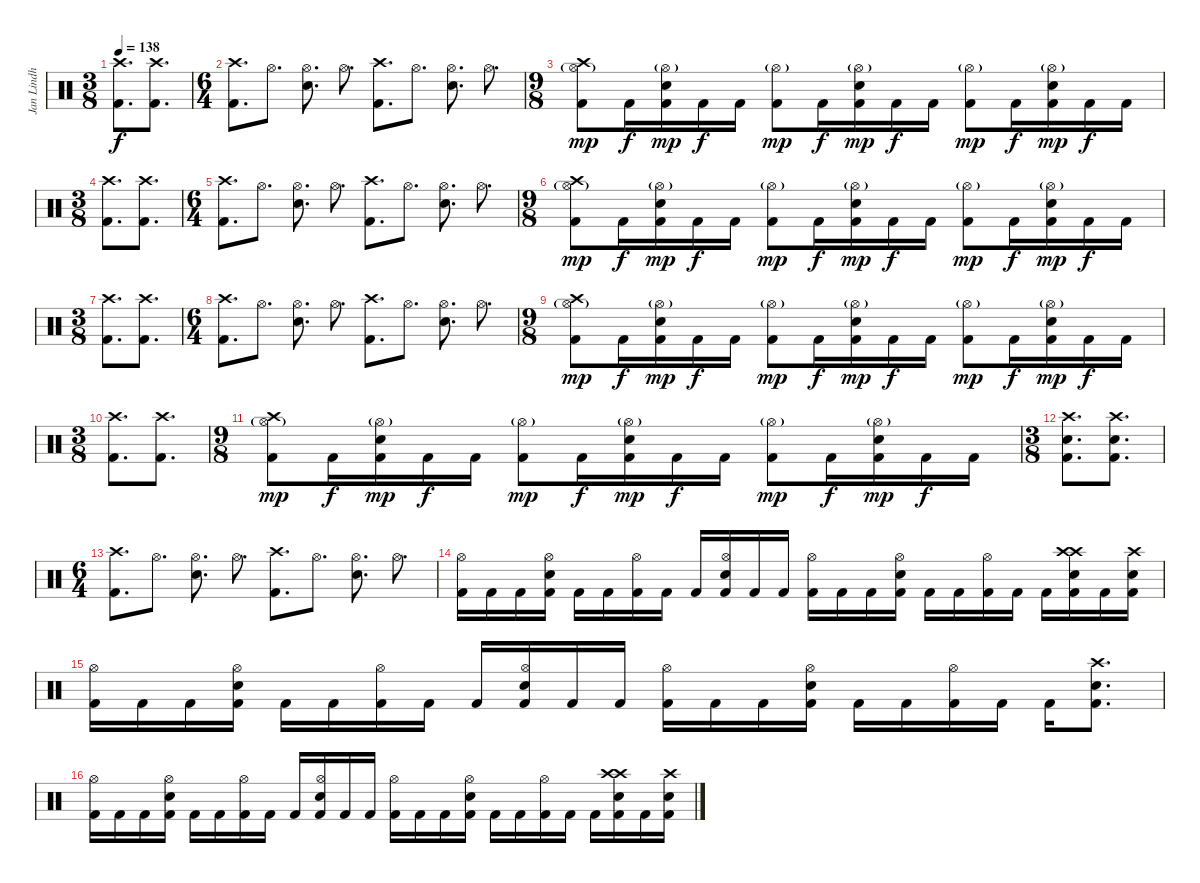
\track ("Jan Lindh" "Jan Lindh") {instrument percussion}
\staff {score}
\articulation defaults
\ts (3 8)
\tempo 138
\clef neutral
\ks c
("Crash high (hit)" "Kick (hit) 2").8{d dy f} ("Crash high (hit)" "Kick (hit) 2").8{d} |
\ts (6 4)
("Crash high (hit)" "Kick (hit) 2").8{d} "Hi-Hat (open)".8{d} ("Hi-Hat (open)" "Electric Snare (hit)").8{d} "Hi-Hat (open)".8{d} ("Crash high (hit)" "Kick (hit) 2").8{d} "Hi-Hat (open)".8{d} ("Hi-Hat (open)" "Electric Snare (hit)").8{d} "Hi-Hat (open)".8{d} |
\ts (9 8)
("Crash high (hit)" "Hi-Hat (open)"{g} "Kick (hit) 2").8{dy mp} "Kick (hit) 2".16{dy f} ("Hi-Hat (open)"{g} "Electric Snare (hit)" "Kick (hit) 2").16{dy mp} "Kick (hit) 2".16{dy f} "Kick (hit) 2".16 ("Hi-Hat (open)"{g} "Kick (hit) 2").8{dy mp} "Kick (hit) 2".16{dy f} ("Hi-Hat (open)"{g} "Electric Snare (hit)" "Kick (hit) 2").16{dy mp} "Kick (hit) 2".16{dy f} "Kick (hit) 2".16 ("Hi-Hat (open)"{g} "Kick (hit) 2").8{dy mp} "Kick (hit) 2".16{dy f} ("Hi-Hat (open)"{g} "Electric Snare (hit)" "Kick (hit) 2").16{dy mp} "Kick (hit) 2".16{dy f} "Kick (hit) 2".16 |
\ts (3 8)
("Crash high (hit)" "Kick (hit) 2").8{d} ("Crash high (hit)" "Kick (hit) 2").8{d} |
\ts (6 4)
("Crash high (hit)" "Kick (hit) 2").8{d} "Hi-Hat (open)".8{d} ("Hi-Hat (open)" "Electric Snare (hit)").8{d} "Hi-Hat (open)".8{d} ("Crash high (hit)" "Kick (hit) 2").8{d} "Hi-Hat (open)".8{d} ("Hi-Hat (open)" "Electric Snare (hit)").8{d} "Hi-Hat (open)".8{d} |
\ts (9 8)
("Crash high (hit)" "Hi-Hat (open)"{g} "Kick (hit) 2").8{dy mp} "Kick (hit) 2".16{dy f} ("Hi-Hat (open)"{g} "Electric Snare (hit)" "Kick (hit) 2").16{dy mp} "Kick (hit) 2".16{dy f} "Kick (hit) 2".16 ("Hi-Hat (open)"{g} "Kick (hit) 2").8{dy mp} "Kick (hit) 2".16{dy f} ("Hi-Hat (open)"{g} "Electric Snare (hit)" "Kick (hit) 2").16{dy mp} "Kick (hit) 2".16{dy f} "Kick (hit) 2".16 ("Hi-Hat (open)"{g} "Kick (hit) 2").8{dy mp} "Kick (hit) 2".16{dy f} ("Hi-Hat (open)"{g} "Electric Snare (hit)" "Kick (hit) 2").16{dy mp} "Kick (hit) 2".16{dy f} "Kick (hit) 2".16 |
\ts (3 8)
("Crash high (hit)" "Kick (hit) 2").8{d} ("Crash high (hit)" "Kick (hit) 2").8{d} |
\ts (6 4)
("Crash high (hit)" "Kick (hit) 2").8{d} "Hi-Hat (open)".8{d} ("Hi-Hat (open)" "Electric Snare (hit)").8{d} "Hi-Hat (open)".8{d} ("Crash high (hit)" "Kick (hit) 2").8{d} "Hi-Hat (open)".8{d} ("Hi-Hat (open)" "Electric Snare (hit)").8{d} "Hi-Hat (open)".8{d} |
\ts (9 8)
("Crash high (hit)" "Hi-Hat (open)"{g} "Kick (hit) 2").8{dy mp} "Kick (hit) 2".16{dy f} ("Hi-Hat (open)"{g} "Electric Snare (hit)" "Kick (hit) 2").16{dy mp} "Kick (hit) 2".16{dy f} "Kick (hit) 2".16 ("Hi-Hat (open)"{g} "Kick (hit) 2").8{dy mp} "Kick (hit) 2".16{dy f} ("Hi-Hat (open)"{g} "Electric Snare (hit)" "Kick (hit) 2").16{dy mp} "Kick (hit) 2".16{dy f} "Kick (hit) 2".16 ("Hi-Hat (open)"{g} "Kick (hit) 2").8{dy mp} "Kick (hit) 2".16{dy f} ("Hi-Hat (open)"{g} "Electric Snare (hit)" "Kick (hit) 2").16{dy mp} "Kick (hit) 2".16{dy f} "Kick (hit) 2".16 |
\ts (3 8)
("Crash high (hit)" "Kick (hit) 2").8{d} ("Crash high (hit)" "Kick (hit) 2").8{d} |
\ts (9 8)
("Crash high (hit)" "Hi-Hat (open)"{g} "Kick (hit) 2").8{dy mp} "Kick (hit) 2".16{dy f} ("Hi-Hat (open)"{g} "Electric Snare (hit)" "Kick (hit) 2").16{dy mp} "Kick (hit) 2".16{dy f} "Kick (hit) 2".16 ("Hi-Hat (open)"{g} "Kick (hit) 2").8{dy mp} "Kick (hit) 2".16{dy f} ("Hi-Hat (open)"{g} "Electric Snare (hit)" "Kick (hit) 2").16{dy mp} "Kick (hit) 2".16{dy f} "Kick (hit) 2".16 ("Hi-Hat (open)"{g} "Kick (hit) 2").8{dy mp} "Kick (hit) 2".16{dy f} ("Hi-Hat (open)"{g} "Electric Snare (hit)" "Kick (hit) 2").16{dy mp} "Kick (hit) 2".16{dy f} "Kick (hit) 2".16 |
\ts (3 8)
("Crash high (hit)" "Electric Snare (hit)" "Kick (hit) 2").8{d} ("Crash high (hit)" "Electric Snare (hit)" "Kick (hit) 2").8{d} |
\ts (6 4)
("Crash high (hit)" "Kick (hit) 2").8{d} "Hi-Hat (open)".8{d} ("Hi-Hat (open)" "Electric Snare (hit)").8{d} "Hi-Hat (open)".8{d} ("Crash high (hit)" "Kick (hit) 2").8{d} "Hi-Hat (open)".8{d} ("Hi-Hat (open)" "Electric Snare (hit)").8{d} "Hi-Hat (open)".8{d} |
("Hi-Hat (open)" "Kick (hit) 2").16 "Kick (hit) 2".16 "Kick (hit) 2".16 ("Hi-Hat (open)" "Electric Snare (hit)" "Kick (hit) 2").16 "Kick (hit) 2".16 "Kick (hit) 2".16 ("Hi-Hat (open)" "Kick (hit) 2").16 "Kick (hit) 2".16 "Kick (hit) 2".16 ("Hi-Hat (open)" "Electric Snare (hit)" "Kick (hit) 2").16 "Kick (hit) 2".16 "Kick (hit) 2".16 ("Hi-Hat (open)" "Kick (hit) 2").16 "Kick (hit) 2".16 "Kick (hit) 2".16 ("Hi-Hat (open)" "Electric Snare (hit)" "Kick (hit) 2").16 "Kick (hit) 2".16 "Kick (hit) 2".16 ("Hi-Hat (open)" "Kick (hit) 2").16 "Kick (hit) 2".16 "Kick (hit) 2".16 ("Crash high (hit)" "Crash high (hit)" "Electric Snare (hit)" "Kick (hit) 2").16 "Kick (hit) 2".16 ("Crash high (hit)" "Electric Snare (hit)" "Kick (hit) 2").16 |
("Hi-Hat (open)" "Kick (hit) 2").16 "Kick (hit) 2".16 "Kick (hit) 2".16 ("Hi-Hat (open)" "Electric Snare (hit)" "Kick (hit) 2").16 "Kick (hit) 2".16 "Kick (hit) 2".16 ("Hi-Hat (open)" "Kick (hit) 2").16 "Kick (hit) 2".16 "Kick (hit) 2".16 ("Hi-Hat (open)" "Electric Snare (hit)" "Kick (hit) 2").16 "Kick (hit) 2".16 "Kick (hit) 2".16 ("Hi-Hat (open)" "Kick (hit) 2").16 "Kick (hit) 2".16 "Kick (hit) 2".16 ("Hi-Hat (open)" "Electric Snare (hit)" "Kick (hit) 2").16 "Kick (hit) 2".16 "Kick (hit) 2".16 ("Hi-Hat (open)" "Kick (hit) 2").16 "Kick (hit) 2".16 "Kick (hit) 2".16 ("Crash high (hit)" "Electric Snare (hit)" "Kick (hit) 2").8{d} |
("Hi-Hat (open)" "Kick (hit) 2").16 "Kick (hit) 2".16 "Kick (hit) 2".16 ("Hi-Hat (open)" "Electric Snare (hit)" "Kick (hit) 2").16 "Kick (hit) 2".16 "Kick (hit) 2".16 ("Hi-Hat (open)" "Kick (hit) 2").16 "Kick (hit) 2".16 "Kick (hit) 2".16 ("Hi-Hat (open)" "Electric Snare (hit)" "Kick (hit) 2").16 "Kick (hit) 2".16 "Kick (hit) 2".16 ("Hi-Hat (open)" "Kick (hit) 2").16 "Kick (hit) 2".16 "Kick (hit) 2".16 ("Hi-Hat (open)" "Electric Snare (hit)" "Kick (hit) 2").16 "Kick (hit) 2".16 "Kick (hit) 2".16 ("Hi-Hat (open)" "Kick (hit) 2").16 "Kick (hit) 2".16 "Kick (hit) 2".16 ("Crash high (hit)" "Crash high (hit)" "Electric Snare (hit)" "Kick (hit) 2").16 "Kick (hit) 2".16 ("Crash high (hit)" "Electric Snare (hit)" "Kick (hit) 2").16
